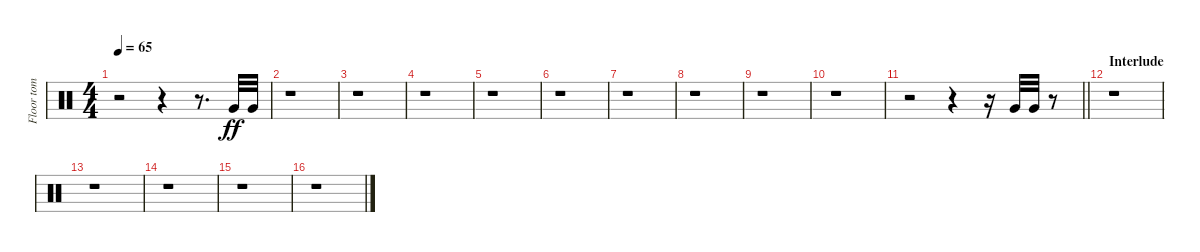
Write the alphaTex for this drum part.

\track ("Floor tom" "Floor tom") {instrument percussion}
\staff {score}
\articulation defaults
\ts (4 4)
\tempo 65
\clef neutral
\ks c
r.2{dy ff} r.4 r.8{d} "Very Low Tom (hit)".32 "Very Low Tom (hit)".32 |
r.1 |
r.1 |
r.1 |
r.1 |
r.1 |
r.1 |
r.1 |
r.1 |
r.1 |
\barLineRight lightlight
r.2 r.4 r.16 "Very Low Tom (hit)".32 "Very Low Tom (hit)".32 r.8 |
\section ("" "Interlude")
r.1 |
r.1 |
r.1 |
r.1 |
r.1
